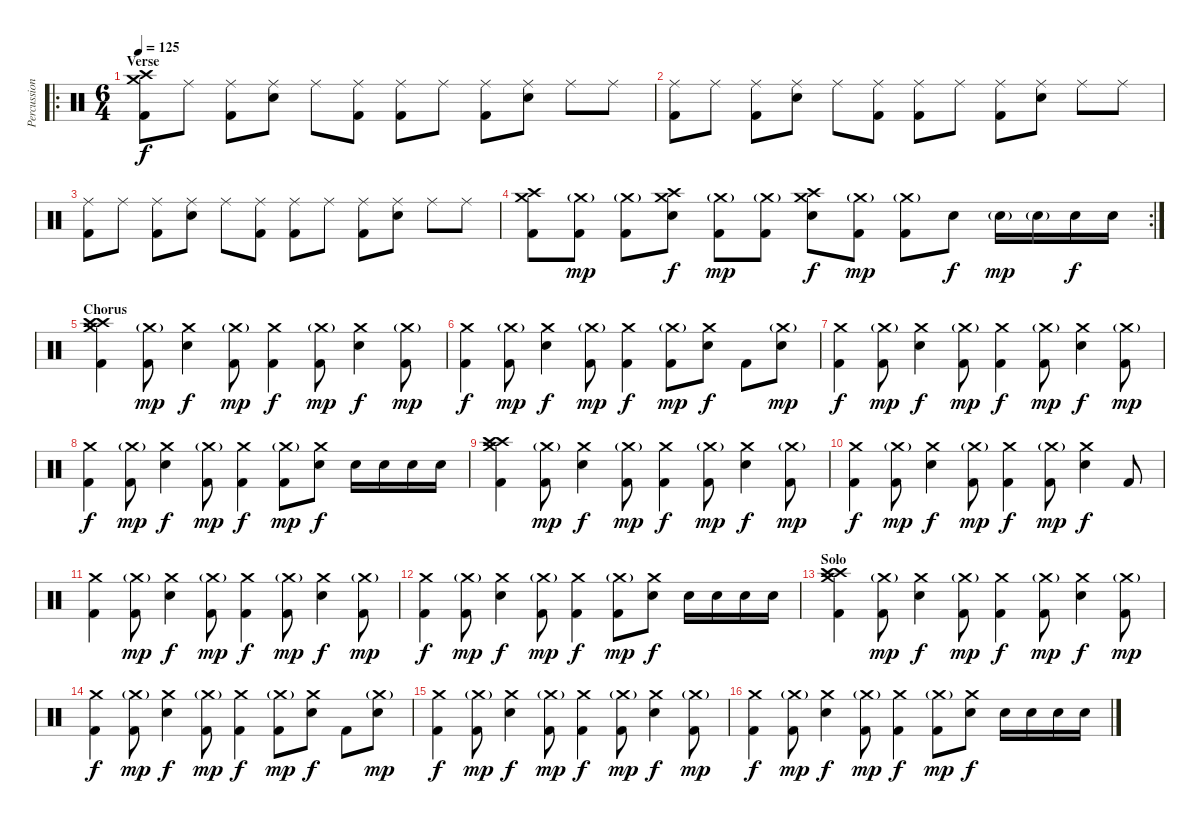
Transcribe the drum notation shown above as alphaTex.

\track ("Percussion" "Percussion") {instrument percussion}
\staff {score}
\articulation defaults
\ro
\ts (6 4)
\section ("" "Verse")
\tempo 125
\clef neutral
\ks c
("Crash high (hit)" "Crash medium (hit)" "Kick (hit) 2").8{dy f} "Ride (middle)".8 ("Ride (middle)" "Kick (hit) 2").8 ("Ride (middle)" "Electric Snare (hit)").8 "Ride (middle)".8 ("Ride (middle)" "Kick (hit) 2").8 ("Ride (middle)" "Kick (hit) 2").8 "Ride (middle)".8 ("Ride (middle)" "Kick (hit) 2").8 ("Ride (middle)" "Electric Snare (hit)").8 "Ride (middle)".8 "Ride (middle)".8 |
("Ride (middle)" "Kick (hit) 2").8 "Ride (middle)".8 ("Ride (middle)" "Kick (hit) 2").8 ("Ride (middle)" "Electric Snare (hit)").8 "Ride (middle)".8 ("Ride (middle)" "Kick (hit) 2").8 ("Ride (middle)" "Kick (hit) 2").8 "Ride (middle)".8 ("Ride (middle)" "Kick (hit) 2").8 ("Ride (middle)" "Electric Snare (hit)").8 "Ride (middle)".8 "Ride (middle)".8 |
("Ride (middle)" "Kick (hit) 2").8 "Ride (middle)".8 ("Ride (middle)" "Kick (hit) 2").8 ("Ride (middle)" "Electric Snare (hit)").8 "Ride (middle)".8 ("Ride (middle)" "Kick (hit) 2").8 ("Ride (middle)" "Kick (hit) 2").8 "Ride (middle)".8 ("Ride (middle)" "Kick (hit) 2").8 ("Ride (middle)" "Electric Snare (hit)").8 "Ride (middle)".8 "Ride (middle)".8 |
\rc 2
("Crash high (hit)" "Crash medium (hit)" "Kick (hit) 2").8 ("Crash medium (hit)"{g} "Kick (hit) 2").8{dy mp} ("Crash medium (hit)"{g} "Kick (hit) 2").8 ("Crash medium (hit)" "Crash high (hit)" "Electric Snare (hit)").8{dy f} ("Crash medium (hit)"{g} "Kick (hit) 2").8{dy mp} ("Crash medium (hit)"{g} "Kick (hit) 2").8 ("Crash high (hit)" "Crash medium (hit)" "Electric Snare (hit)").8{dy f} ("Crash medium (hit)"{g} "Kick (hit) 2").8{dy mp} ("Crash medium (hit)"{g} "Kick (hit) 2").8 "Electric Snare (hit)".8{dy f} "Electric Snare (hit)"{g}.16{dy mp} "Electric Snare (hit)"{g}.16 "Electric Snare (hit)".16{dy f} "Electric Snare (hit)".16 |
\section ("" "Chorus")
("Crash high (hit)" "Crash high (hit)" "Crash medium (hit)" "Kick (hit) 2").4 ("Crash medium (hit)"{g} "Kick (hit) 2").8{dy mp} ("Crash medium (hit)" "Electric Snare (hit)").4{dy f} ("Crash medium (hit)"{g} "Kick (hit) 2").8{dy mp} ("Crash medium (hit)" "Kick (hit) 2").4{dy f} ("Crash medium (hit)"{g} "Kick (hit) 2").8{dy mp} ("Crash medium (hit)" "Electric Snare (hit)").4{dy f} ("Crash medium (hit)"{g} "Kick (hit) 2").8{dy mp} |
("Crash medium (hit)" "Kick (hit) 2").4{dy f} ("Crash medium (hit)"{g} "Kick (hit) 2").8{dy mp} ("Crash medium (hit)" "Electric Snare (hit)").4{dy f} ("Crash medium (hit)"{g} "Kick (hit) 2").8{dy mp} ("Crash medium (hit)" "Kick (hit) 2").4{dy f} ("Crash medium (hit)"{g} "Kick (hit) 2").8{dy mp} ("Crash medium (hit)" "Electric Snare (hit)").8{dy f} "Kick (hit) 2".8 ("Crash medium (hit)"{g} "Electric Snare (hit)").8{dy mp} |
("Crash medium (hit)" "Kick (hit) 2").4{dy f} ("Crash medium (hit)"{g} "Kick (hit) 2").8{dy mp} ("Crash medium (hit)" "Electric Snare (hit)").4{dy f} ("Crash medium (hit)"{g} "Kick (hit) 2").8{dy mp} ("Crash medium (hit)" "Kick (hit) 2").4{dy f} ("Crash medium (hit)"{g} "Kick (hit) 2").8{dy mp} ("Crash medium (hit)" "Electric Snare (hit)").4{dy f} ("Crash medium (hit)"{g} "Kick (hit) 2").8{dy mp} |
("Crash medium (hit)" "Kick (hit) 2").4{dy f} ("Crash medium (hit)"{g} "Kick (hit) 2").8{dy mp} ("Crash medium (hit)" "Electric Snare (hit)").4{dy f} ("Crash medium (hit)"{g} "Kick (hit) 2").8{dy mp} ("Crash medium (hit)" "Kick (hit) 2").4{dy f} ("Crash medium (hit)"{g} "Kick (hit) 2").8{dy mp} ("Crash medium (hit)" "Electric Snare (hit)").8{dy f} "Electric Snare (hit)".16 "Electric Snare (hit)".16 "Electric Snare (hit)".16 "Electric Snare (hit)".16 |
("Crash high (hit)" "Crash high (hit)" "Crash medium (hit)" "Kick (hit) 2").4 ("Crash medium (hit)"{g} "Kick (hit) 2").8{dy mp} ("Crash medium (hit)" "Electric Snare (hit)").4{dy f} ("Crash medium (hit)"{g} "Kick (hit) 2").8{dy mp} ("Crash medium (hit)" "Kick (hit) 2").4{dy f} ("Crash medium (hit)"{g} "Kick (hit) 2").8{dy mp} ("Crash medium (hit)" "Electric Snare (hit)").4{dy f} ("Crash medium (hit)"{g} "Kick (hit) 2").8{dy mp} |
("Crash medium (hit)" "Kick (hit) 2").4{dy f} ("Crash medium (hit)"{g} "Kick (hit) 2").8{dy mp} ("Crash medium (hit)" "Electric Snare (hit)").4{dy f} ("Crash medium (hit)"{g} "Kick (hit) 2").8{dy mp} ("Crash medium (hit)" "Kick (hit) 2").4{dy f} ("Crash medium (hit)"{g} "Kick (hit) 2").8{dy mp} ("Crash medium (hit)" "Electric Snare (hit)").4{dy f} "Kick (hit) 2".8 |
("Crash medium (hit)" "Kick (hit) 2").4 ("Crash medium (hit)"{g} "Kick (hit) 2").8{dy mp} ("Crash medium (hit)" "Electric Snare (hit)").4{dy f} ("Crash medium (hit)"{g} "Kick (hit) 2").8{dy mp} ("Crash medium (hit)" "Kick (hit) 2").4{dy f} ("Crash medium (hit)"{g} "Kick (hit) 2").8{dy mp} ("Crash medium (hit)" "Electric Snare (hit)").4{dy f} ("Crash medium (hit)"{g} "Kick (hit) 2").8{dy mp} |
("Crash medium (hit)" "Kick (hit) 2").4{dy f} ("Crash medium (hit)"{g} "Kick (hit) 2").8{dy mp} ("Crash medium (hit)" "Electric Snare (hit)").4{dy f} ("Crash medium (hit)"{g} "Kick (hit) 2").8{dy mp} ("Crash medium (hit)" "Kick (hit) 2").4{dy f} ("Crash medium (hit)"{g} "Kick (hit) 2").8{dy mp} ("Crash medium (hit)" "Electric Snare (hit)").8{dy f} "Electric Snare (hit)".16 "Electric Snare (hit)".16 "Electric Snare (hit)".16 "Electric Snare (hit)".16 |
\section ("" "Solo")
("Crash high (hit)" "Crash high (hit)" "Crash medium (hit)" "Kick (hit) 2").4 ("Crash medium (hit)"{g} "Kick (hit) 2").8{dy mp} ("Crash medium (hit)" "Electric Snare (hit)").4{dy f} ("Crash medium (hit)"{g} "Kick (hit) 2").8{dy mp} ("Crash medium (hit)" "Kick (hit) 2").4{dy f} ("Crash medium (hit)"{g} "Kick (hit) 2").8{dy mp} ("Crash medium (hit)" "Electric Snare (hit)").4{dy f} ("Crash medium (hit)"{g} "Kick (hit) 2").8{dy mp} |
("Crash medium (hit)" "Kick (hit) 2").4{dy f} ("Crash medium (hit)"{g} "Kick (hit) 2").8{dy mp} ("Crash medium (hit)" "Electric Snare (hit)").4{dy f} ("Crash medium (hit)"{g} "Kick (hit) 2").8{dy mp} ("Crash medium (hit)" "Kick (hit) 2").4{dy f} ("Crash medium (hit)"{g} "Kick (hit) 2").8{dy mp} ("Crash medium (hit)" "Electric Snare (hit)").8{dy f} "Kick (hit) 2".8 ("Crash medium (hit)"{g} "Electric Snare (hit)").8{dy mp} |
("Crash medium (hit)" "Kick (hit) 2").4{dy f} ("Crash medium (hit)"{g} "Kick (hit) 2").8{dy mp} ("Crash medium (hit)" "Electric Snare (hit)").4{dy f} ("Crash medium (hit)"{g} "Kick (hit) 2").8{dy mp} ("Crash medium (hit)" "Kick (hit) 2").4{dy f} ("Crash medium (hit)"{g} "Kick (hit) 2").8{dy mp} ("Crash medium (hit)" "Electric Snare (hit)").4{dy f} ("Crash medium (hit)"{g} "Kick (hit) 2").8{dy mp} |
("Crash medium (hit)" "Kick (hit) 2").4{dy f} ("Crash medium (hit)"{g} "Kick (hit) 2").8{dy mp} ("Crash medium (hit)" "Electric Snare (hit)").4{dy f} ("Crash medium (hit)"{g} "Kick (hit) 2").8{dy mp} ("Crash medium (hit)" "Kick (hit) 2").4{dy f} ("Crash medium (hit)"{g} "Kick (hit) 2").8{dy mp} ("Crash medium (hit)" "Electric Snare (hit)").8{dy f} "Electric Snare (hit)".16 "Electric Snare (hit)".16 "Electric Snare (hit)".16 "Electric Snare (hit)".16
